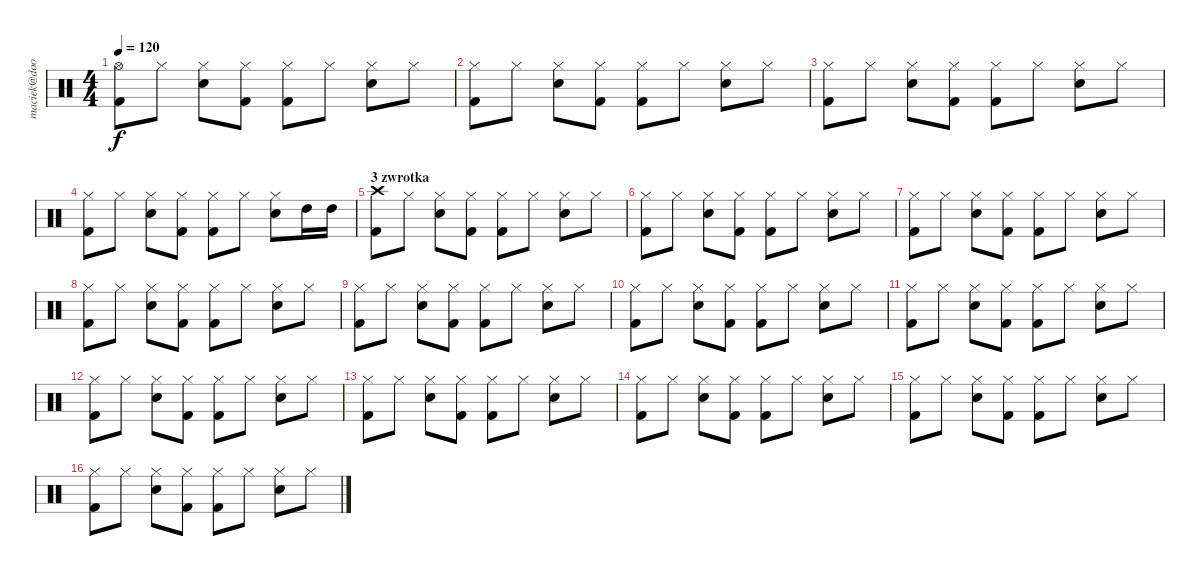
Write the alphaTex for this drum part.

\track ("maciek@doorpol.com" "maciek@doo") {instrument percussion}
\staff {score}
\articulation defaults
\ts (4 4)
\tempo 120
\clef neutral
\ks c
("Hi-Hat (open)" "Kick (hit) 2").8{dy f} "Hi-Hat (closed)".8 ("Hi-Hat (closed)" "Snare (hit) 2").8 ("Hi-Hat (closed)" "Kick (hit) 2").8 ("Hi-Hat (closed)" "Kick (hit) 2").8 "Hi-Hat (closed)".8 ("Hi-Hat (closed)" "Snare (hit) 2").8 "Hi-Hat (closed)".8 |
("Hi-Hat (closed)" "Kick (hit) 2").8 "Hi-Hat (closed)".8 ("Hi-Hat (closed)" "Snare (hit) 2").8 ("Hi-Hat (closed)" "Kick (hit) 2").8 ("Hi-Hat (closed)" "Kick (hit) 2").8 "Hi-Hat (closed)".8 ("Hi-Hat (closed)" "Snare (hit) 2").8 "Hi-Hat (closed)".8 |
("Hi-Hat (closed)" "Kick (hit) 2").8 "Hi-Hat (closed)".8 ("Hi-Hat (closed)" "Snare (hit) 2").8 ("Hi-Hat (closed)" "Kick (hit) 2").8 ("Hi-Hat (closed)" "Kick (hit) 2").8 "Hi-Hat (closed)".8 ("Hi-Hat (closed)" "Snare (hit) 2").8 "Hi-Hat (closed)".8 |
("Hi-Hat (closed)" "Kick (hit) 2").8 "Hi-Hat (closed)".8 ("Hi-Hat (closed)" "Snare (hit) 2").8 ("Hi-Hat (closed)" "Kick (hit) 2").8 ("Hi-Hat (closed)" "Kick (hit) 2").8 "Hi-Hat (closed)".8 ("Hi-Hat (closed)" "Snare (hit) 2").8 "High Tom (hit)".16 "High Tom (hit)".16 |
\section ("" "3 zwrotka")
("Crash high (hit)" "Kick (hit) 2").8 "Hi-Hat (closed)".8 ("Hi-Hat (closed)" "Snare (hit) 2").8 ("Hi-Hat (closed)" "Kick (hit) 2").8 ("Hi-Hat (closed)" "Kick (hit) 2").8 "Hi-Hat (closed)".8 ("Hi-Hat (closed)" "Snare (hit) 2").8 "Hi-Hat (closed)".8 |
("Hi-Hat (closed)" "Kick (hit) 2").8 "Hi-Hat (closed)".8 ("Hi-Hat (closed)" "Snare (hit) 2").8 ("Hi-Hat (closed)" "Kick (hit) 2").8 ("Hi-Hat (closed)" "Kick (hit) 2").8 "Hi-Hat (closed)".8 ("Hi-Hat (closed)" "Snare (hit) 2").8 "Hi-Hat (closed)".8 |
("Hi-Hat (closed)" "Kick (hit) 2").8 "Hi-Hat (closed)".8 ("Hi-Hat (closed)" "Snare (hit) 2").8 ("Hi-Hat (closed)" "Kick (hit) 2").8 ("Hi-Hat (closed)" "Kick (hit) 2").8 "Hi-Hat (closed)".8 ("Hi-Hat (closed)" "Snare (hit) 2").8 "Hi-Hat (closed)".8 |
("Hi-Hat (closed)" "Kick (hit) 2").8 "Hi-Hat (closed)".8 ("Hi-Hat (closed)" "Snare (hit) 2").8 ("Hi-Hat (closed)" "Kick (hit) 2").8 ("Hi-Hat (closed)" "Kick (hit) 2").8 "Hi-Hat (closed)".8 ("Hi-Hat (closed)" "Snare (hit) 2").8 "Hi-Hat (closed)".8 |
("Hi-Hat (closed)" "Kick (hit) 2").8 "Hi-Hat (closed)".8 ("Hi-Hat (closed)" "Snare (hit) 2").8 ("Hi-Hat (closed)" "Kick (hit) 2").8 ("Hi-Hat (closed)" "Kick (hit) 2").8 "Hi-Hat (closed)".8 ("Hi-Hat (closed)" "Snare (hit) 2").8 "Hi-Hat (closed)".8 |
("Hi-Hat (closed)" "Kick (hit) 2").8 "Hi-Hat (closed)".8 ("Hi-Hat (closed)" "Snare (hit) 2").8 ("Hi-Hat (closed)" "Kick (hit) 2").8 ("Hi-Hat (closed)" "Kick (hit) 2").8 "Hi-Hat (closed)".8 ("Hi-Hat (closed)" "Snare (hit) 2").8 "Hi-Hat (closed)".8 |
("Hi-Hat (closed)" "Kick (hit) 2").8 "Hi-Hat (closed)".8 ("Hi-Hat (closed)" "Snare (hit) 2").8 ("Hi-Hat (closed)" "Kick (hit) 2").8 ("Hi-Hat (closed)" "Kick (hit) 2").8 "Hi-Hat (closed)".8 ("Hi-Hat (closed)" "Snare (hit) 2").8 "Hi-Hat (closed)".8 |
("Hi-Hat (closed)" "Kick (hit) 2").8 "Hi-Hat (closed)".8 ("Hi-Hat (closed)" "Snare (hit) 2").8 ("Hi-Hat (closed)" "Kick (hit) 2").8 ("Hi-Hat (closed)" "Kick (hit) 2").8 "Hi-Hat (closed)".8 ("Hi-Hat (closed)" "Snare (hit) 2").8 "Hi-Hat (closed)".8 |
("Hi-Hat (closed)" "Kick (hit) 2").8 "Hi-Hat (closed)".8 ("Hi-Hat (closed)" "Snare (hit) 2").8 ("Hi-Hat (closed)" "Kick (hit) 2").8 ("Hi-Hat (closed)" "Kick (hit) 2").8 "Hi-Hat (closed)".8 ("Hi-Hat (closed)" "Snare (hit) 2").8 "Hi-Hat (closed)".8 |
("Hi-Hat (closed)" "Kick (hit) 2").8 "Hi-Hat (closed)".8 ("Hi-Hat (closed)" "Snare (hit) 2").8 ("Hi-Hat (closed)" "Kick (hit) 2").8 ("Hi-Hat (closed)" "Kick (hit) 2").8 "Hi-Hat (closed)".8 ("Hi-Hat (closed)" "Snare (hit) 2").8 "Hi-Hat (closed)".8 |
("Hi-Hat (closed)" "Kick (hit) 2").8 "Hi-Hat (closed)".8 ("Hi-Hat (closed)" "Snare (hit) 2").8 ("Hi-Hat (closed)" "Kick (hit) 2").8 ("Hi-Hat (closed)" "Kick (hit) 2").8 "Hi-Hat (closed)".8 ("Hi-Hat (closed)" "Snare (hit) 2").8 "Hi-Hat (closed)".8 |
("Hi-Hat (closed)" "Kick (hit) 2").8 "Hi-Hat (closed)".8 ("Hi-Hat (closed)" "Snare (hit) 2").8 ("Hi-Hat (closed)" "Kick (hit) 2").8 ("Hi-Hat (closed)" "Kick (hit) 2").8 "Hi-Hat (closed)".8 ("Hi-Hat (closed)" "Snare (hit) 2").8 "Hi-Hat (closed)".8
